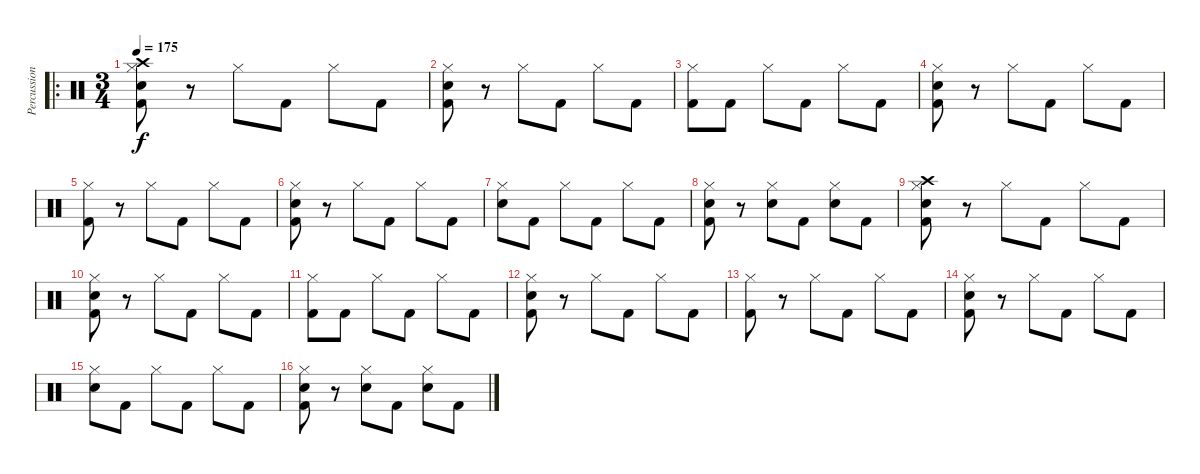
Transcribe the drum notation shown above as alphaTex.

\track ("Percussion" "Percussion") {instrument percussion}
\staff {score}
\articulation defaults
\ro
\ts (3 4)
\tempo 175
\clef neutral
\ks c
("Hi-Hat (closed)" "Crash high (hit)" "Electric Snare (hit)" "Kick (hit) 2").8{dy f} r.8 "Hi-Hat (closed)".8 "Kick (hit) 2".8 "Hi-Hat (closed)".8 "Kick (hit) 2".8 |
("Hi-Hat (closed)" "Electric Snare (hit)" "Kick (hit) 2").8 r.8 "Hi-Hat (closed)".8 "Kick (hit) 2".8 "Hi-Hat (closed)".8 "Kick (hit) 2".8 |
("Hi-Hat (closed)" "Kick (hit) 2").8 "Kick (hit) 2".8 "Hi-Hat (closed)".8 "Kick (hit) 2".8 "Hi-Hat (closed)".8 "Kick (hit) 2".8 |
("Hi-Hat (closed)" "Electric Snare (hit)" "Kick (hit) 2").8 r.8 "Hi-Hat (closed)".8 "Kick (hit) 2".8 "Hi-Hat (closed)".8 "Kick (hit) 2".8 |
("Hi-Hat (closed)" "Kick (hit) 2").8 r.8 "Hi-Hat (closed)".8 "Kick (hit) 2".8 "Hi-Hat (closed)".8 "Kick (hit) 2".8 |
("Hi-Hat (closed)" "Electric Snare (hit)" "Kick (hit) 2").8 r.8 "Hi-Hat (closed)".8 "Kick (hit) 2".8 "Hi-Hat (closed)".8 "Kick (hit) 2".8 |
("Hi-Hat (closed)" "Electric Snare (hit)").8 "Kick (hit) 2".8 "Hi-Hat (closed)".8 "Kick (hit) 2".8 "Hi-Hat (closed)".8 "Kick (hit) 2".8 |
("Hi-Hat (closed)" "Electric Snare (hit)" "Kick (hit) 2").8 r.8 ("Hi-Hat (closed)" "Electric Snare (hit)").8 "Kick (hit) 2".8 ("Hi-Hat (closed)" "Electric Snare (hit)").8 "Kick (hit) 2".8 |
("Hi-Hat (closed)" "Crash high (hit)" "Electric Snare (hit)" "Kick (hit) 2").8 r.8 "Hi-Hat (closed)".8 "Kick (hit) 2".8 "Hi-Hat (closed)".8 "Kick (hit) 2".8 |
("Hi-Hat (closed)" "Electric Snare (hit)" "Kick (hit) 2").8 r.8 "Hi-Hat (closed)".8 "Kick (hit) 2".8 "Hi-Hat (closed)".8 "Kick (hit) 2".8 |
("Hi-Hat (closed)" "Kick (hit) 2").8 "Kick (hit) 2".8 "Hi-Hat (closed)".8 "Kick (hit) 2".8 "Hi-Hat (closed)".8 "Kick (hit) 2".8 |
("Hi-Hat (closed)" "Electric Snare (hit)" "Kick (hit) 2").8 r.8 "Hi-Hat (closed)".8 "Kick (hit) 2".8 "Hi-Hat (closed)".8 "Kick (hit) 2".8 |
("Hi-Hat (closed)" "Kick (hit) 2").8 r.8 "Hi-Hat (closed)".8 "Kick (hit) 2".8 "Hi-Hat (closed)".8 "Kick (hit) 2".8 |
("Hi-Hat (closed)" "Electric Snare (hit)" "Kick (hit) 2").8 r.8 "Hi-Hat (closed)".8 "Kick (hit) 2".8 "Hi-Hat (closed)".8 "Kick (hit) 2".8 |
("Hi-Hat (closed)" "Electric Snare (hit)").8 "Kick (hit) 2".8 "Hi-Hat (closed)".8 "Kick (hit) 2".8 "Hi-Hat (closed)".8 "Kick (hit) 2".8 |
("Hi-Hat (closed)" "Electric Snare (hit)" "Kick (hit) 2").8 r.8 ("Hi-Hat (closed)" "Electric Snare (hit)").8 "Kick (hit) 2".8 ("Hi-Hat (closed)" "Electric Snare (hit)").8 "Kick (hit) 2".8
